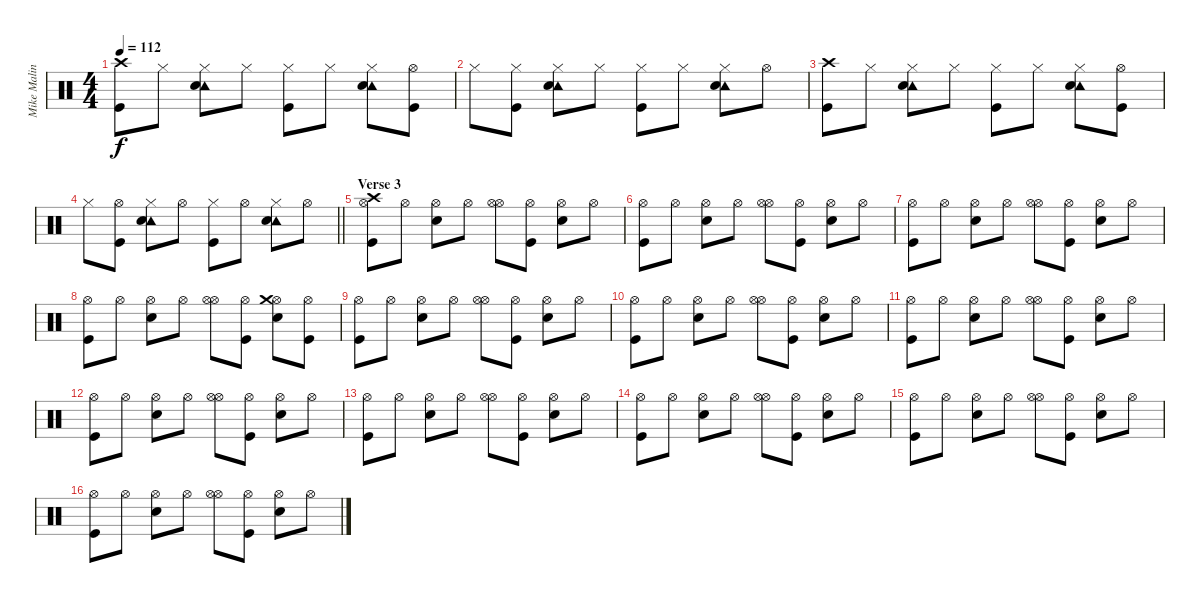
\track ("Mike Malinin - Percussion" "Mike Malin") {instrument percussion}
\staff {score}
\articulation defaults
\ts (4 4)
\tempo 112
\clef neutral
\ks c
("Crash high (hit)" "Kick (hit)").8{dy f} "Hi-Hat (closed)".8 ("Hi-Hat (closed)" "Tambourine (hit)" "Snare (hit) 2").8 "Hi-Hat (closed)".8 ("Hi-Hat (closed)" "Kick (hit)").8 "Hi-Hat (closed)".8 ("Hi-Hat (closed)" "Tambourine (hit)" "Snare (hit) 2").8 ("Hi-Hat (open)" "Kick (hit)").8 |
"Hi-Hat (closed)".8 ("Hi-Hat (closed)" "Kick (hit)").8 ("Hi-Hat (closed)" "Tambourine (hit)" "Snare (hit) 2").8 "Hi-Hat (closed)".8 ("Hi-Hat (closed)" "Kick (hit)").8 "Hi-Hat (closed)".8 ("Hi-Hat (closed)" "Tambourine (hit)" "Snare (hit) 2").8 "Hi-Hat (open)".8 |
("Crash high (hit)" "Kick (hit)").8 "Hi-Hat (closed)".8 ("Hi-Hat (closed)" "Tambourine (hit)" "Snare (hit) 2").8 "Hi-Hat (closed)".8 ("Hi-Hat (closed)" "Kick (hit)").8 "Hi-Hat (closed)".8 ("Hi-Hat (closed)" "Tambourine (hit)" "Snare (hit) 2").8 ("Hi-Hat (open)" "Kick (hit)").8 |
\barLineRight lightlight "Hi-Hat (closed)".8
("Hi-Hat (open)" "Kick (hit)").8 ("Hi-Hat (closed)" "Tambourine (hit)" "Snare (hit) 2").8 "Hi-Hat (open)".8 ("Hi-Hat (closed)" "Kick (hit)").8 "Hi-Hat (open)".8 ("Hi-Hat (closed)" "Tambourine (hit)" "Snare (hit) 2").8 "Hi-Hat (open)".8 |
\section ("" "Verse 3")
("Hi-Hat (open)" "Crash high (hit)" "Kick (hit)").8 "Hi-Hat (open)".8 ("Hi-Hat (open)" "Snare (hit) 2").8 "Hi-Hat (open)".8 ("Hi-Hat (open)" "Hi-Hat (open)").8 ("Hi-Hat (open)" "Kick (hit)").8 ("Hi-Hat (open)" "Snare (hit) 2").8 "Hi-Hat (open)".8 |
("Hi-Hat (open)" "Kick (hit)").8 "Hi-Hat (open)".8 ("Hi-Hat (open)" "Snare (hit) 2").8 "Hi-Hat (open)".8 ("Hi-Hat (open)" "Hi-Hat (open)").8 ("Hi-Hat (open)" "Kick (hit)").8 ("Hi-Hat (open)" "Snare (hit) 2").8 "Hi-Hat (open)".8 |
("Hi-Hat (open)" "Kick (hit)").8 "Hi-Hat (open)".8 ("Hi-Hat (open)" "Snare (hit) 2").8 "Hi-Hat (open)".8 ("Hi-Hat (open)" "Hi-Hat (open)").8 ("Hi-Hat (open)" "Kick (hit)").8 ("Hi-Hat (open)" "Snare (hit) 2").8 "Hi-Hat (open)".8 |
("Hi-Hat (open)" "Kick (hit)").8 "Hi-Hat (open)".8 ("Hi-Hat (open)" "Snare (hit) 2").8 "Hi-Hat (open)".8 ("Hi-Hat (open)" "Hi-Hat (open)").8 ("Hi-Hat (open)" "Kick (hit)").8 ("Hi-Hat (open)" "Crash medium (hit)" "Snare (hit) 2").8 ("Hi-Hat (open)" "Kick (hit)").8 |
("Hi-Hat (open)" "Kick (hit)").8 "Hi-Hat (open)".8 ("Hi-Hat (open)" "Snare (hit) 2").8 "Hi-Hat (open)".8 ("Hi-Hat (open)" "Hi-Hat (open)").8 ("Hi-Hat (open)" "Kick (hit)").8 ("Hi-Hat (open)" "Snare (hit) 2").8 "Hi-Hat (open)".8 |
("Hi-Hat (open)" "Kick (hit)").8 "Hi-Hat (open)".8 ("Hi-Hat (open)" "Snare (hit) 2").8 "Hi-Hat (open)".8 ("Hi-Hat (open)" "Hi-Hat (open)").8 ("Hi-Hat (open)" "Kick (hit)").8 ("Hi-Hat (open)" "Snare (hit) 2").8 "Hi-Hat (open)".8 |
("Hi-Hat (open)" "Kick (hit)").8 "Hi-Hat (open)".8 ("Hi-Hat (open)" "Snare (hit) 2").8 "Hi-Hat (open)".8 ("Hi-Hat (open)" "Hi-Hat (open)").8 ("Hi-Hat (open)" "Kick (hit)").8 ("Hi-Hat (open)" "Snare (hit) 2").8 "Hi-Hat (open)".8 |
("Hi-Hat (open)" "Kick (hit)").8 "Hi-Hat (open)".8 ("Hi-Hat (open)" "Snare (hit) 2").8 "Hi-Hat (open)".8 ("Hi-Hat (open)" "Hi-Hat (open)").8 ("Hi-Hat (open)" "Kick (hit)").8 ("Hi-Hat (open)" "Snare (hit) 2").8 "Hi-Hat (open)".8 |
("Hi-Hat (open)" "Kick (hit)").8 "Hi-Hat (open)".8 ("Hi-Hat (open)" "Snare (hit) 2").8 "Hi-Hat (open)".8 ("Hi-Hat (open)" "Hi-Hat (open)").8 ("Hi-Hat (open)" "Kick (hit)").8 ("Hi-Hat (open)" "Snare (hit) 2").8 "Hi-Hat (open)".8 |
("Hi-Hat (open)" "Kick (hit)").8 "Hi-Hat (open)".8 ("Hi-Hat (open)" "Snare (hit) 2").8 "Hi-Hat (open)".8 ("Hi-Hat (open)" "Hi-Hat (open)").8 ("Hi-Hat (open)" "Kick (hit)").8 ("Hi-Hat (open)" "Snare (hit) 2").8 "Hi-Hat (open)".8 |
("Hi-Hat (open)" "Kick (hit)").8 "Hi-Hat (open)".8 ("Hi-Hat (open)" "Snare (hit) 2").8 "Hi-Hat (open)".8 ("Hi-Hat (open)" "Hi-Hat (open)").8 ("Hi-Hat (open)" "Kick (hit)").8 ("Hi-Hat (open)" "Snare (hit) 2").8 "Hi-Hat (open)".8 |
("Hi-Hat (open)" "Kick (hit)").8 "Hi-Hat (open)".8 ("Hi-Hat (open)" "Snare (hit) 2").8 "Hi-Hat (open)".8 ("Hi-Hat (open)" "Hi-Hat (open)").8 ("Hi-Hat (open)" "Kick (hit)").8 ("Hi-Hat (open)" "Snare (hit) 2").8 "Hi-Hat (open)".8
